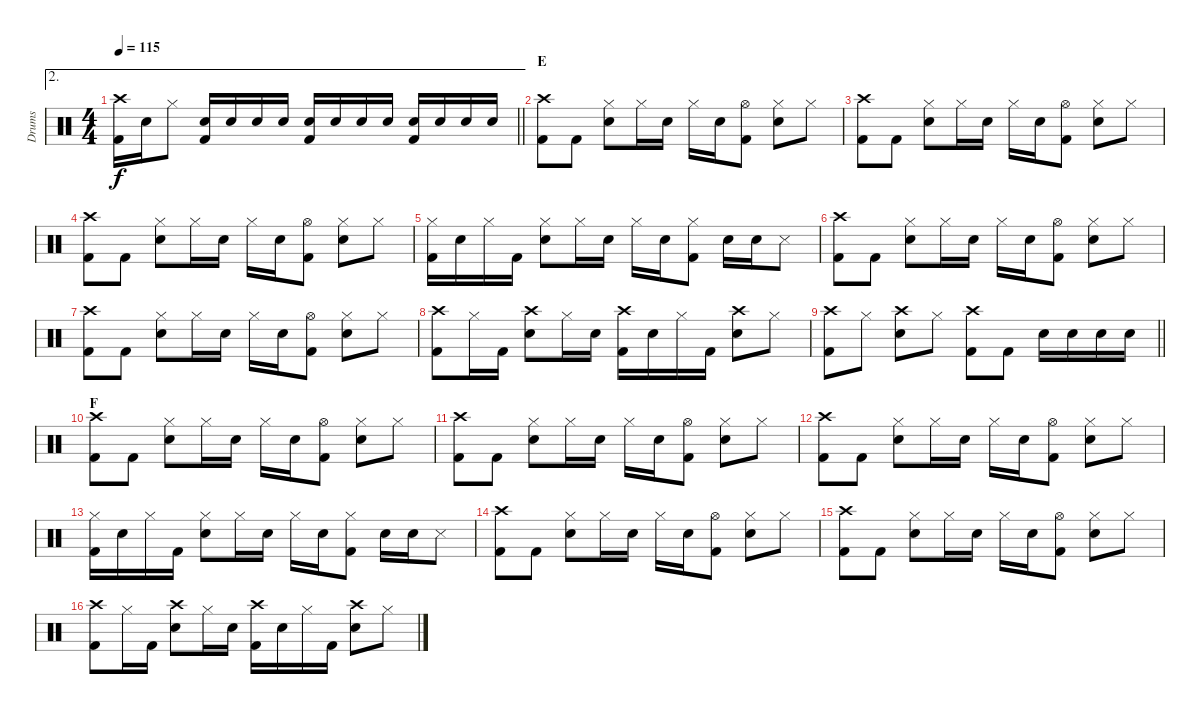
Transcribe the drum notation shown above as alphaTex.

\track ("Drums" "Drums") {instrument percussion}
\staff {score}
\articulation defaults
\ae 2
\ts (4 4)
\tempo 115
\clef neutral
\barLineRight lightlight
\ks c
("Crash high (hit)" "Kick (hit) 2").16{dy f} "Snare (hit) 2".16 "Hi-Hat (closed)".8 ("Snare (hit) 2" "Kick (hit) 2").16 "Snare (hit) 2".16 "Snare (hit) 2".16 "Snare (hit) 2".16 ("Snare (hit) 2" "Kick (hit) 2").16 "Snare (hit) 2".16 "Snare (hit) 2".16 "Snare (hit) 2".16 ("Snare (hit) 2" "Kick (hit) 2").16 "Snare (hit) 2".16 "Snare (hit) 2".16 "Snare (hit) 2".16 |
\section ("" "E")
("Crash high (hit)" "Kick (hit) 2").8 "Kick (hit) 2".8 ("Hi-Hat (closed)" "Snare (hit) 2").8 "Hi-Hat (closed)".16 "Snare (hit) 2".16 "Hi-Hat (closed)".16 "Snare (hit) 2".16 ("Hi-Hat (open)" "Kick (hit) 2").8 ("Hi-Hat (closed)" "Snare (hit) 2").8 "Hi-Hat (closed)".8 |
("Crash high (hit)" "Kick (hit) 2").8 "Kick (hit) 2".8 ("Hi-Hat (closed)" "Snare (hit) 2").8 "Hi-Hat (closed)".16 "Snare (hit) 2".16 "Hi-Hat (closed)".16 "Snare (hit) 2".16 ("Hi-Hat (open)" "Kick (hit) 2").8 ("Hi-Hat (closed)" "Snare (hit) 2").8 "Hi-Hat (closed)".8 |
("Crash high (hit)" "Kick (hit) 2").8 "Kick (hit) 2".8 ("Hi-Hat (closed)" "Snare (hit) 2").8 "Hi-Hat (closed)".16 "Snare (hit) 2".16 "Hi-Hat (closed)".16 "Snare (hit) 2".16 ("Hi-Hat (open)" "Kick (hit) 2").8 ("Hi-Hat (closed)" "Snare (hit) 2").8 "Hi-Hat (closed)".8 |
("Hi-Hat (closed)" "Kick (hit) 2").16 "Snare (hit) 2".16 "Hi-Hat (closed)".16 "Kick (hit) 2".16 ("Hi-Hat (closed)" "Snare (hit) 2").8 "Hi-Hat (closed)".16 "Snare (hit) 2".16 "Hi-Hat (closed)".16 "Snare (hit) 2".16 ("Hi-Hat (closed)" "Kick (hit) 2").8 "Snare (hit) 2".16 "Snare (hit) 2".16 "Snare (side stick) 3".8 |
("Crash high (hit)" "Kick (hit) 2").8 "Kick (hit) 2".8 ("Hi-Hat (closed)" "Snare (hit) 2").8 "Hi-Hat (closed)".16 "Snare (hit) 2".16 "Hi-Hat (closed)".16 "Snare (hit) 2".16 ("Hi-Hat (open)" "Kick (hit) 2").8 ("Hi-Hat (closed)" "Snare (hit) 2").8 "Hi-Hat (closed)".8 |
("Crash high (hit)" "Kick (hit) 2").8 "Kick (hit) 2".8 ("Hi-Hat (closed)" "Snare (hit) 2").8 "Hi-Hat (closed)".16 "Snare (hit) 2".16 "Hi-Hat (closed)".16 "Snare (hit) 2".16 ("Hi-Hat (open)" "Kick (hit) 2").8 ("Hi-Hat (closed)" "Snare (hit) 2").8 "Hi-Hat (closed)".8 |
("Crash high (hit)" "Kick (hit) 2").8 "Hi-Hat (closed)".16 "Kick (hit) 2".16 ("Crash high (hit)" "Snare (hit) 2").8 "Hi-Hat (closed)".16 "Snare (hit) 2".16 ("Crash high (hit)" "Kick (hit) 2").16 "Snare (hit) 2".16 "Hi-Hat (closed)".16 "Kick (hit) 2".16 ("Crash high (hit)" "Snare (hit) 2").8 "Hi-Hat (closed)".8 |
\barLineRight lightlight
("Crash high (hit)" "Kick (hit) 2").8 "Hi-Hat (closed)".8 ("Crash high (hit)" "Snare (hit) 2").8 "Hi-Hat (closed)".8 ("Crash high (hit)" "Kick (hit) 2").8 "Kick (hit) 2".8 "Snare (hit) 2".16 "Snare (hit) 2".16 "Snare (hit) 2".16 "Snare (hit) 2".16 |
\section ("" "F")
("Crash high (hit)" "Kick (hit) 2").8 "Kick (hit) 2".8 ("Hi-Hat (closed)" "Snare (hit) 2").8 "Hi-Hat (closed)".16 "Snare (hit) 2".16 "Hi-Hat (closed)".16 "Snare (hit) 2".16 ("Hi-Hat (open)" "Kick (hit) 2").8 ("Hi-Hat (closed)" "Snare (hit) 2").8 "Hi-Hat (closed)".8 |
("Crash high (hit)" "Kick (hit) 2").8 "Kick (hit) 2".8 ("Hi-Hat (closed)" "Snare (hit) 2").8 "Hi-Hat (closed)".16 "Snare (hit) 2".16 "Hi-Hat (closed)".16 "Snare (hit) 2".16 ("Hi-Hat (open)" "Kick (hit) 2").8 ("Hi-Hat (closed)" "Snare (hit) 2").8 "Hi-Hat (closed)".8 |
("Crash high (hit)" "Kick (hit) 2").8 "Kick (hit) 2".8 ("Hi-Hat (closed)" "Snare (hit) 2").8 "Hi-Hat (closed)".16 "Snare (hit) 2".16 "Hi-Hat (closed)".16 "Snare (hit) 2".16 ("Hi-Hat (open)" "Kick (hit) 2").8 ("Hi-Hat (closed)" "Snare (hit) 2").8 "Hi-Hat (closed)".8 |
("Hi-Hat (closed)" "Kick (hit) 2").16 "Snare (hit) 2".16 "Hi-Hat (closed)".16 "Kick (hit) 2".16 ("Hi-Hat (closed)" "Snare (hit) 2").8 "Hi-Hat (closed)".16 "Snare (hit) 2".16 "Hi-Hat (closed)".16 "Snare (hit) 2".16 ("Hi-Hat (closed)" "Kick (hit) 2").8 "Snare (hit) 2".16 "Snare (hit) 2".16 "Snare (side stick) 3".8 |
("Crash high (hit)" "Kick (hit) 2").8 "Kick (hit) 2".8 ("Hi-Hat (closed)" "Snare (hit) 2").8 "Hi-Hat (closed)".16 "Snare (hit) 2".16 "Hi-Hat (closed)".16 "Snare (hit) 2".16 ("Hi-Hat (open)" "Kick (hit) 2").8 ("Hi-Hat (closed)" "Snare (hit) 2").8 "Hi-Hat (closed)".8 |
("Crash high (hit)" "Kick (hit) 2").8 "Kick (hit) 2".8 ("Hi-Hat (closed)" "Snare (hit) 2").8 "Hi-Hat (closed)".16 "Snare (hit) 2".16 "Hi-Hat (closed)".16 "Snare (hit) 2".16 ("Hi-Hat (open)" "Kick (hit) 2").8 ("Hi-Hat (closed)" "Snare (hit) 2").8 "Hi-Hat (closed)".8 |
("Crash high (hit)" "Kick (hit) 2").8 "Hi-Hat (closed)".16 "Kick (hit) 2".16 ("Crash high (hit)" "Snare (hit) 2").8 "Hi-Hat (closed)".16 "Snare (hit) 2".16 ("Crash high (hit)" "Kick (hit) 2").16 "Snare (hit) 2".16 "Hi-Hat (closed)".16 "Kick (hit) 2".16 ("Crash high (hit)" "Snare (hit) 2").8 "Hi-Hat (closed)".8
